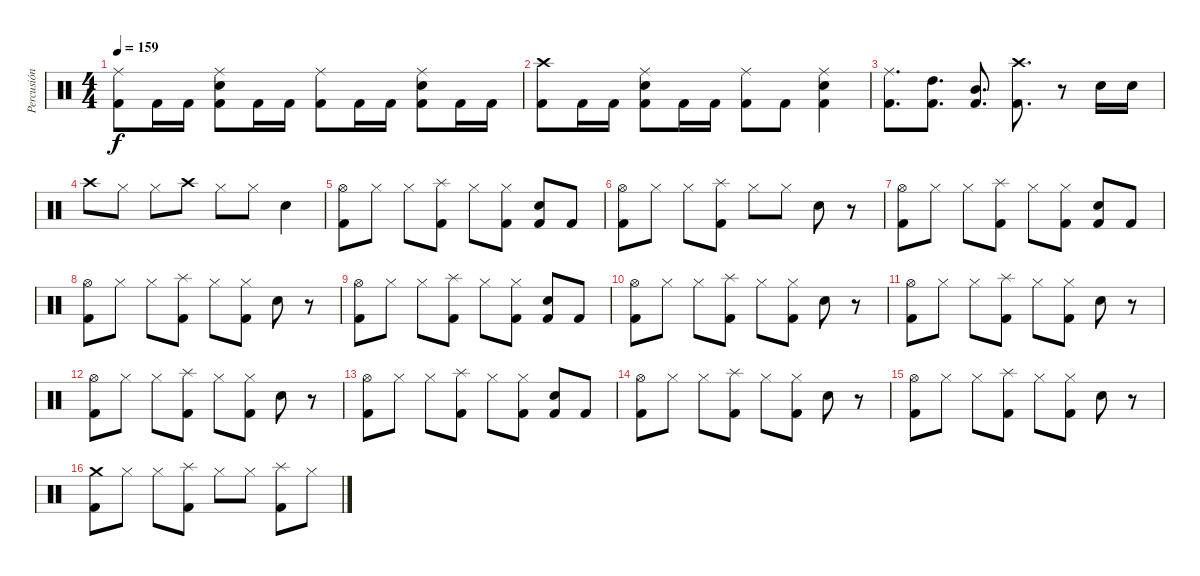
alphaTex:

\track ("Percusión" "Percusión") {instrument percussion}
\staff {score}
\articulation defaults
\ts (4 4)
\tempo 159
\clef neutral
\ks c
("Ride (middle)" "Kick (hit) 2").8{dy f} "Kick (hit) 2".16 "Kick (hit) 2".16 ("Ride (middle)" "Electric Snare (hit)" "Kick (hit) 2").8 "Kick (hit) 2".16 "Kick (hit) 2".16 ("Ride (middle)" "Kick (hit) 2").8 "Kick (hit) 2".16 "Kick (hit) 2".16 ("Ride (middle)" "Electric Snare (hit)" "Kick (hit) 2").8 "Kick (hit) 2".16 "Kick (hit) 2".16 |
("Crash high (hit)" "Kick (hit) 2").8 "Kick (hit) 2".16 "Kick (hit) 2".16 ("Ride (middle)" "Electric Snare (hit)" "Kick (hit) 2").8 "Kick (hit) 2".16 "Kick (hit) 2".16 ("Ride (middle)" "Kick (hit) 2").8 "Kick (hit) 2".8 ("Ride (middle)" "Electric Snare (hit)" "Kick (hit) 2").4 |
("Ride (middle)" "Kick (hit) 2").8{d} ("High Tom (hit)" "Kick (hit) 2").8{d} ("Mid Tom (hit)" "Kick (hit) 2").8{d} ("Crash high (hit)" "Kick (hit) 2").8{d} r.8 "Electric Snare (hit)".16 "Electric Snare (hit)".16 |
"Crash high (hit)".8 "Hi-Hat (closed)".8 "Hi-Hat (closed)".8 "Crash high (hit)".8 "Hi-Hat (closed)".8 "Hi-Hat (closed)".8 "Electric Snare (hit)".4 |
("Hi-Hat (open)" "Kick (hit) 2").8 "Hi-Hat (closed)".8 "Hi-Hat (closed)".8 ("Splash (hit)" "Kick (hit) 2").8 "Hi-Hat (closed)".8 ("Hi-Hat (closed)" "Kick (hit) 2").8 ("Electric Snare (hit)" "Kick (hit) 2").8 "Kick (hit) 2".8 |
("Hi-Hat (open)" "Kick (hit) 2").8 "Hi-Hat (closed)".8 "Hi-Hat (closed)".8 ("Splash (hit)" "Kick (hit) 2").8 "Hi-Hat (closed)".8 "Hi-Hat (closed)".8 "Electric Snare (hit)".8 r.8 |
("Hi-Hat (open)" "Kick (hit) 2").8 "Hi-Hat (closed)".8 "Hi-Hat (closed)".8 ("Splash (hit)" "Kick (hit) 2").8 "Hi-Hat (closed)".8 ("Hi-Hat (closed)" "Kick (hit) 2").8 ("Electric Snare (hit)" "Kick (hit) 2").8 "Kick (hit) 2".8 |
("Hi-Hat (open)" "Kick (hit) 2").8 "Hi-Hat (closed)".8 "Hi-Hat (closed)".8 ("Splash (hit)" "Kick (hit) 2").8 "Hi-Hat (closed)".8 ("Hi-Hat (closed)" "Kick (hit) 2").8 "Electric Snare (hit)".8 r.8 |
("Hi-Hat (open)" "Kick (hit) 2").8 "Hi-Hat (closed)".8 "Hi-Hat (closed)".8 ("Splash (hit)" "Kick (hit) 2").8 "Hi-Hat (closed)".8 ("Hi-Hat (closed)" "Kick (hit) 2").8 ("Electric Snare (hit)" "Kick (hit) 2").8 "Kick (hit) 2".8 |
("Hi-Hat (open)" "Kick (hit) 2").8 "Hi-Hat (closed)".8 "Hi-Hat (closed)".8 ("Splash (hit)" "Kick (hit) 2").8 "Hi-Hat (closed)".8 ("Hi-Hat (closed)" "Kick (hit) 2").8 "Electric Snare (hit)".8 r.8 |
("Hi-Hat (open)" "Kick (hit) 2").8 "Hi-Hat (closed)".8 "Hi-Hat (closed)".8 ("Splash (hit)" "Kick (hit) 2").8 "Hi-Hat (closed)".8 ("Hi-Hat (closed)" "Kick (hit) 2").8 "Electric Snare (hit)".8 r.8 |
("Hi-Hat (open)" "Kick (hit) 2").8 "Hi-Hat (closed)".8 "Hi-Hat (closed)".8 ("Splash (hit)" "Kick (hit) 2").8 "Hi-Hat (closed)".8 ("Hi-Hat (closed)" "Kick (hit) 2").8 "Electric Snare (hit)".8 r.8 |
("Hi-Hat (open)" "Kick (hit) 2").8 "Hi-Hat (closed)".8 "Hi-Hat (closed)".8 ("Splash (hit)" "Kick (hit) 2").8 "Hi-Hat (closed)".8 ("Hi-Hat (closed)" "Kick (hit) 2").8 ("Electric Snare (hit)" "Kick (hit) 2").8 "Kick (hit) 2".8 |
("Hi-Hat (open)" "Kick (hit) 2").8 "Hi-Hat (closed)".8 "Hi-Hat (closed)".8 ("Splash (hit)" "Kick (hit) 2").8 "Hi-Hat (closed)".8 ("Hi-Hat (closed)" "Kick (hit) 2").8 "Electric Snare (hit)".8 r.8 |
("Hi-Hat (open)" "Kick (hit) 2").8 "Hi-Hat (closed)".8 "Hi-Hat (closed)".8 ("Splash (hit)" "Kick (hit) 2").8 "Hi-Hat (closed)".8 ("Hi-Hat (closed)" "Kick (hit) 2").8 "Electric Snare (hit)".8 r.8 |
("Crash medium (hit)" "Kick (hit) 2").8 "Hi-Hat (closed)".8 "Hi-Hat (closed)".8 ("Splash (hit)" "Kick (hit) 2").8 "Hi-Hat (closed)".8 "Hi-Hat (closed)".8 ("Splash (hit)" "Kick (hit) 2").8 "Hi-Hat (closed)".8
